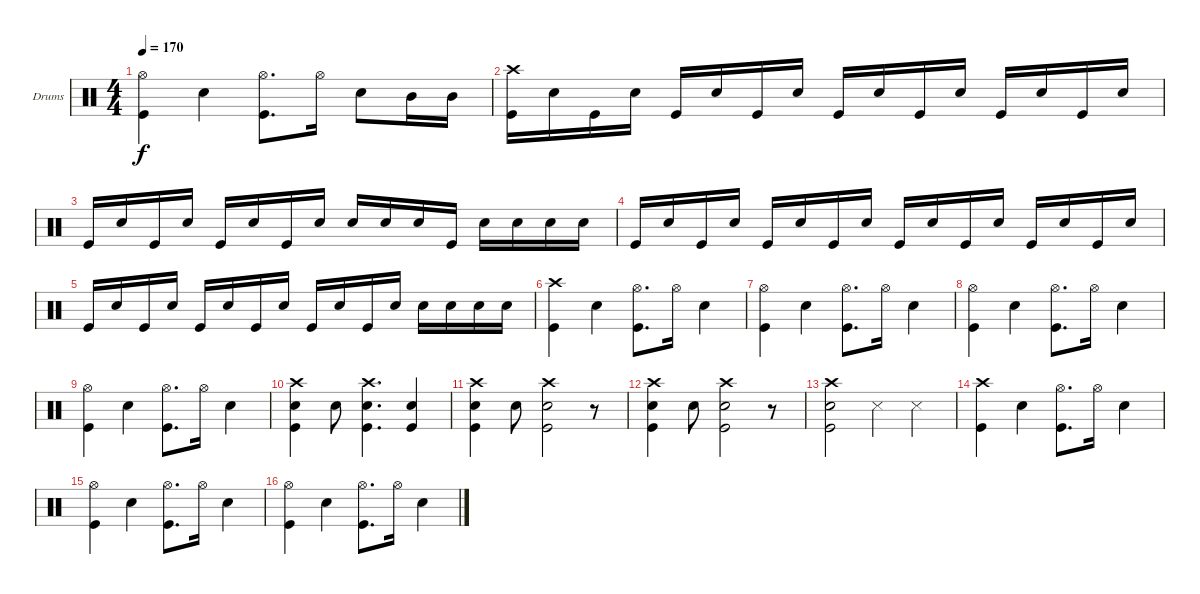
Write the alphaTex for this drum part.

\bracketExtendMode groupsimilarinstruments
\firstSystemTrackNameOrientation horizontal
\otherSystemsTrackNameOrientation horizontal
\track ("Batterie - Anders Johansson" "Drums") {instrument percussion}
\staff {score}
\articulation defaults
\ts (4 4)
\tempo 170
\clef neutral
\ks c
("Hi-Hat (open)" "Kick (hit)").4{dy f} "Snare (hit) 2".4 ("Hi-Hat (open)" "Kick (hit)").8{d} "Hi-Hat (open)".16 "Snare (hit) 2".8 "Mid Tom (hit)".16 "Mid Tom (hit)".16 |
("Crash high (hit)" "Kick (hit)").16 "Snare (hit) 2".16 "Kick (hit)".16 "Snare (hit) 2".16 "Kick (hit)".16 "Snare (hit) 2".16 "Kick (hit)".16 "Snare (hit) 2".16 "Kick (hit)".16 "Snare (hit) 2".16 "Kick (hit)".16 "Snare (hit) 2".16 "Kick (hit)".16 "Snare (hit) 2".16 "Kick (hit)".16 "Snare (hit) 2".16 |
"Kick (hit)".16 "Snare (hit) 2".16 "Kick (hit)".16 "Snare (hit) 2".16 "Kick (hit)".16 "Snare (hit) 2".16 "Kick (hit)".16 "Snare (hit) 2".16 "Snare (hit) 2".16 "Snare (hit) 2".16 "Snare (hit) 2".16 "Kick (hit)".16 "Snare (hit) 2".16 "Snare (hit) 2".16 "Snare (hit) 2".16 "Snare (hit) 2".16 |
"Kick (hit)".16 "Snare (hit) 2".16 "Kick (hit)".16 "Snare (hit) 2".16 "Kick (hit)".16 "Snare (hit) 2".16 "Kick (hit)".16 "Snare (hit) 2".16 "Kick (hit)".16 "Snare (hit) 2".16 "Kick (hit)".16 "Snare (hit) 2".16 "Kick (hit)".16 "Snare (hit) 2".16 "Kick (hit)".16 "Snare (hit) 2".16 |
"Kick (hit)".16 "Snare (hit) 2".16 "Kick (hit)".16 "Snare (hit) 2".16 "Kick (hit)".16 "Snare (hit) 2".16 "Kick (hit)".16 "Snare (hit) 2".16 "Kick (hit)".16 "Snare (hit) 2".16 "Kick (hit)".16 "Snare (hit) 2".16 "Snare (hit) 2".16 "Snare (hit) 2".16 "Snare (hit) 2".16 "Snare (hit) 2".16 |
("Crash high (hit)" "Kick (hit)").4 "Snare (hit) 2".4 ("Hi-Hat (open)" "Kick (hit)").8{d} "Hi-Hat (open)".16 "Snare (hit) 2".4 |
("Hi-Hat (open)" "Kick (hit)").4 "Snare (hit) 2".4 ("Hi-Hat (open)" "Kick (hit)").8{d} "Hi-Hat (open)".16 "Snare (hit) 2".4 |
("Hi-Hat (open)" "Kick (hit)").4 "Snare (hit) 2".4 ("Hi-Hat (open)" "Kick (hit)").8{d} "Hi-Hat (open)".16 "Snare (hit) 2".4 |
("Hi-Hat (open)" "Kick (hit)").4 "Snare (hit) 2".4 ("Hi-Hat (open)" "Kick (hit)").8{d} "Hi-Hat (open)".16 "Snare (hit) 2".4 |
("Crash high (hit)" "Snare (hit) 2" "Kick (hit)").4 "Snare (hit) 2".8 ("Crash high (hit)" "Snare (hit) 2" "Kick (hit)").4{d} ("Snare (hit) 2" "Kick (hit)").4 |
("Crash high (hit)" "Snare (hit) 2" "Kick (hit)").4 "Snare (hit) 2".8 ("Crash high (hit)" "Snare (hit) 2" "Kick (hit)").2 r.8 |
("Crash high (hit)" "Snare (hit) 2" "Kick (hit)").4 "Snare (hit) 2".8 ("Crash high (hit)" "Snare (hit) 2" "Kick (hit)").2 r.8 |
("Crash high (hit)" "Snare (hit) 2" "Kick (hit)").2 "Snare (side stick) 3".4 "Snare (side stick) 3".4 |
("Crash high (hit)" "Kick (hit)").4 "Snare (hit) 2".4 ("Hi-Hat (open)" "Kick (hit)").8{d} "Hi-Hat (open)".16 "Snare (hit) 2".4 |
("Hi-Hat (open)" "Kick (hit)").4 "Snare (hit) 2".4 ("Hi-Hat (open)" "Kick (hit)").8{d} "Hi-Hat (open)".16 "Snare (hit) 2".4 |
("Hi-Hat (open)" "Kick (hit)").4 "Snare (hit) 2".4 ("Hi-Hat (open)" "Kick (hit)").8{d} "Hi-Hat (open)".16 "Snare (hit) 2".4
